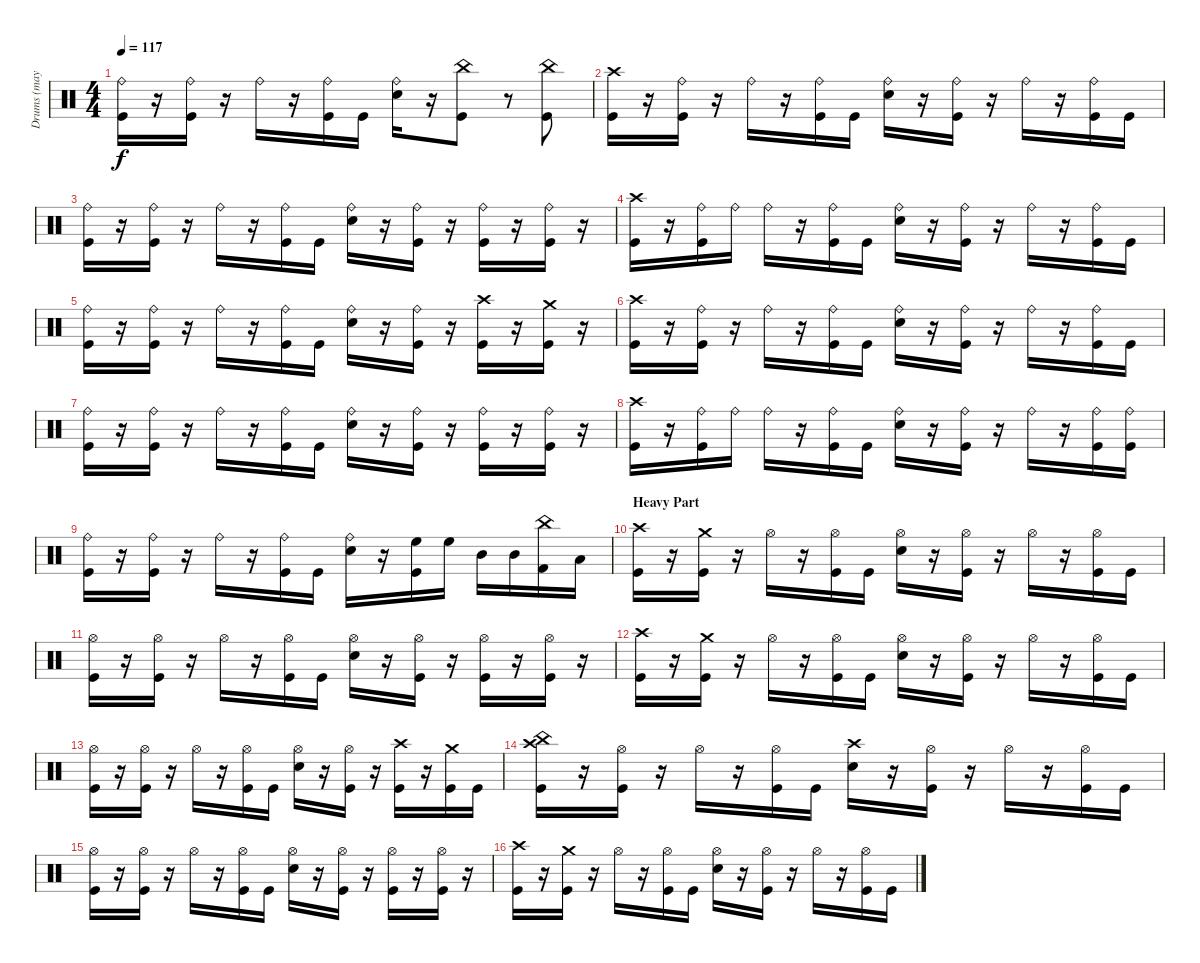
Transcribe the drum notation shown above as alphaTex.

\track ("Drums (maybe electrical, too)" "Drums (may") {instrument percussion}
\staff {score}
\articulation defaults
\ts (4 4)
\tempo 117
\clef neutral
\ks c
("Ride (bell)" "Kick (hit)").16{dy f} r.16 ("Ride (bell)" "Kick (hit)").16 r.16 "Ride (bell)".16 r.16 ("Ride (bell)" "Kick (hit)").16 "Kick (hit)".16 ("Ride (bell)" "Electric Snare (hit)").16 r.16 ("China (hit)" "Kick (hit)").8 r.8{volume 0} ("China (hit)" "Kick (hit)").8{volume 15} |
("Crash high (hit)" "Kick (hit)").16 r.16 ("Ride (bell)" "Kick (hit)").16 r.16 "Ride (bell)".16 r.16 ("Ride (bell)" "Kick (hit)").16 "Kick (hit)".16 ("Ride (bell)" "Electric Snare (hit)").16 r.16 ("Ride (bell)" "Kick (hit)").16 r.16 "Ride (bell)".16 r.16 ("Ride (bell)" "Kick (hit)").16 "Kick (hit)".16 |
("Ride (bell)" "Kick (hit)").16 r.16 ("Ride (bell)" "Kick (hit)").16 r.16 "Ride (bell)".16 r.16 ("Ride (bell)" "Kick (hit)").16 "Kick (hit)".16 ("Ride (bell)" "Electric Snare (hit)").16 r.16 ("Ride (bell)" "Kick (hit)").16 r.16 ("Ride (bell)" "Kick (hit)").16 r.16 ("Ride (bell)" "Kick (hit)").16 r.16 |
("Crash high (hit)" "Kick (hit)").16 r.16 ("Ride (bell)" "Kick (hit)").16 "Ride (bell)".16 "Ride (bell)".16 r.16 ("Ride (bell)" "Kick (hit)").16 "Kick (hit)".16 ("Ride (bell)" "Electric Snare (hit)").16 r.16 ("Ride (bell)" "Kick (hit)").16 r.16 "Ride (bell)".16 r.16 ("Ride (bell)" "Kick (hit)").16 "Kick (hit)".16 |
("Ride (bell)" "Kick (hit)").16 r.16 ("Ride (bell)" "Kick (hit)").16 r.16 "Ride (bell)".16 r.16 ("Ride (bell)" "Kick (hit)").16 "Kick (hit)".16 ("Ride (bell)" "Electric Snare (hit)").16 r.16 ("Ride (bell)" "Kick (hit)").16 r.16 ("Crash high (hit)" "Kick (hit)").16 r.16 ("Crash medium (hit)" "Kick (hit)").16 r.16 |
("Crash high (hit)" "Kick (hit)").16 r.16 ("Ride (bell)" "Kick (hit)").16 r.16 "Ride (bell)".16 r.16 ("Ride (bell)" "Kick (hit)").16 "Kick (hit)".16 ("Ride (bell)" "Electric Snare (hit)").16 r.16 ("Ride (bell)" "Kick (hit)").16 r.16 "Ride (bell)".16 r.16 ("Ride (bell)" "Kick (hit)").16 "Kick (hit)".16 |
("Ride (bell)" "Kick (hit)").16 r.16 ("Ride (bell)" "Kick (hit)").16 r.16 "Ride (bell)".16 r.16 ("Ride (bell)" "Kick (hit)").16 "Kick (hit)".16 ("Ride (bell)" "Electric Snare (hit)").16 r.16 ("Ride (bell)" "Kick (hit)").16 r.16 ("Ride (bell)" "Kick (hit)").16 r.16 ("Ride (bell)" "Kick (hit)").16 r.16 |
("Crash high (hit)" "Kick (hit)").16 r.16 ("Ride (bell)" "Kick (hit)").16 "Ride (bell)".16 "Ride (bell)".16 r.16 ("Ride (bell)" "Kick (hit)").16 "Kick (hit)".16 ("Ride (bell)" "Electric Snare (hit)").16 r.16 ("Ride (bell)" "Kick (hit)").16 r.16 "Ride (bell)".16 r.16 ("Ride (bell)" "Kick (hit)").16 ("Ride (bell)" "Kick (hit)").16 |
("Ride (bell)" "Kick (hit)").16 r.16 ("Ride (bell)" "Kick (hit)").16 r.16 "Ride (bell)".16 r.16 ("Ride (bell)" "Kick (hit)").16 "Kick (hit)".16 ("Ride (bell)" "Electric Snare (hit)").16 r.16 ("High Floor Tom (hit)" "Kick (hit)").16 "High Floor Tom (hit)".16 "Mid Tom (hit)".16 "Mid Tom (hit)".16 ("China (hit)" "Kick (hit) 2").16 "Low Tom (hit)".16 |
\section ("" "Heavy Part")
("Crash high (hit)" "Kick (hit)").16 r.16 ("Crash medium (hit)" "Kick (hit)").16 r.16 "Hi-Hat (open)".16 r.16 ("Hi-Hat (open)" "Kick (hit)").16 "Kick (hit)".16 ("Hi-Hat (open)" "Electric Snare (hit)").16 r.16 ("Hi-Hat (open)" "Kick (hit)").16 r.16 "Hi-Hat (open)".16 r.16 ("Hi-Hat (open)" "Kick (hit)").16 "Kick (hit)".16 |
("Hi-Hat (open)" "Kick (hit)").16 r.16 ("Hi-Hat (open)" "Kick (hit)").16 r.16 "Hi-Hat (open)".16 r.16 ("Hi-Hat (open)" "Kick (hit)").16 "Kick (hit)".16 ("Hi-Hat (open)" "Electric Snare (hit)").16 r.16 ("Hi-Hat (open)" "Kick (hit)").16 r.16 ("Hi-Hat (open)" "Kick (hit)").16 r.16 ("Hi-Hat (open)" "Kick (hit)").16 r.16 |
("Crash high (hit)" "Kick (hit)").16 r.16 ("Crash medium (hit)" "Kick (hit)").16 r.16 "Hi-Hat (open)".16 r.16 ("Hi-Hat (open)" "Kick (hit)").16 "Kick (hit)".16 ("Hi-Hat (open)" "Electric Snare (hit)").16 r.16 ("Hi-Hat (open)" "Kick (hit)").16 r.16 "Hi-Hat (open)".16 r.16 ("Hi-Hat (open)" "Kick (hit)").16 "Kick (hit)".16 |
("Hi-Hat (open)" "Kick (hit)").16 r.16 ("Hi-Hat (open)" "Kick (hit)").16 r.16 "Hi-Hat (open)".16 r.16 ("Hi-Hat (open)" "Kick (hit)").16 "Kick (hit)".16 ("Hi-Hat (open)" "Electric Snare (hit)").16 r.16 ("Hi-Hat (open)" "Kick (hit)").16 r.16 ("Crash high (hit)" "Kick (hit)").16 r.16 ("Crash medium (hit)" "Kick (hit)").16 "Kick (hit)".16 |
("Crash high (hit)" "China (hit)" "Kick (hit)").16 r.16 ("Hi-Hat (open)" "Kick (hit)").16 r.16 "Hi-Hat (open)".16 r.16 ("Hi-Hat (open)" "Kick (hit)").16 "Kick (hit)".16 ("Crash high (hit)" "Electric Snare (hit)").16 r.16 ("Hi-Hat (open)" "Kick (hit)").16 r.16 "Hi-Hat (open)".16 r.16 ("Hi-Hat (open)" "Kick (hit)").16 "Kick (hit)".16 |
("Hi-Hat (open)" "Kick (hit)").16 r.16 ("Hi-Hat (open)" "Kick (hit)").16 r.16 "Hi-Hat (open)".16 r.16 ("Hi-Hat (open)" "Kick (hit)").16 "Kick (hit)".16 ("Hi-Hat (open)" "Electric Snare (hit)").16 r.16 ("Hi-Hat (open)" "Kick (hit)").16 r.16 ("Hi-Hat (open)" "Kick (hit)").16 r.16 ("Hi-Hat (open)" "Kick (hit)").16 r.16 |
("Crash high (hit)" "Kick (hit)").16 r.16 ("Crash medium (hit)" "Kick (hit)").16 r.16 "Hi-Hat (open)".16 r.16 ("Hi-Hat (open)" "Kick (hit)").16 "Kick (hit)".16 ("Hi-Hat (open)" "Electric Snare (hit)").16 r.16 ("Hi-Hat (open)" "Kick (hit)").16 r.16 "Hi-Hat (open)".16 r.16 ("Hi-Hat (open)" "Kick (hit)").16 "Kick (hit)".16
